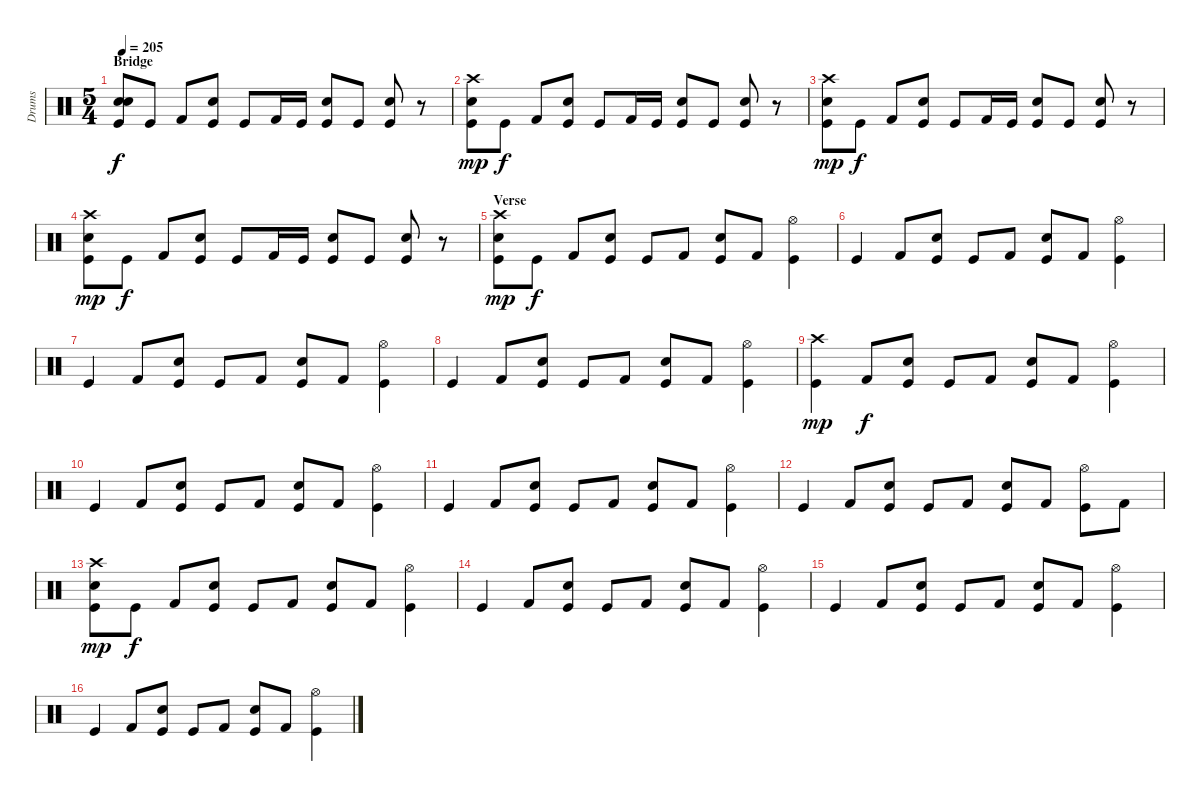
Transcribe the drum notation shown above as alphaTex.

\track ("Drums" "Drums") {instrument percussion}
\staff {score}
\articulation defaults
\ts (5 4)
\section ("" "Bridge")
\tempo 205
\clef neutral
\ks c
("Snare (hit)"{t} "Snare (hit) 2" "Kick (hit)").8{dy f} "Kick (hit)".8 "Kick (hit) 2".8 ("Snare (hit) 2" "Kick (hit)").8 "Kick (hit)".8 "Kick (hit) 2".16 "Kick (hit)".16 ("Snare (hit) 2" "Kick (hit)").8 "Kick (hit)".8 ("Snare (hit) 2" "Kick (hit)").8 r.8 |
("Crash high (hit)" "Snare (hit) 2" "Kick (hit)").8{dy mp} "Kick (hit)".8{dy f} "Kick (hit) 2".8 ("Snare (hit) 2" "Kick (hit)").8 "Kick (hit)".8 "Kick (hit) 2".16 "Kick (hit)".16 ("Snare (hit) 2" "Kick (hit)").8 "Kick (hit)".8 ("Snare (hit) 2" "Kick (hit)").8 r.8 |
("Crash high (hit)" "Snare (hit) 2" "Kick (hit)").8{dy mp} "Kick (hit)".8{dy f} "Kick (hit) 2".8 ("Snare (hit) 2" "Kick (hit)").8 "Kick (hit)".8 "Kick (hit) 2".16 "Kick (hit)".16 ("Snare (hit) 2" "Kick (hit)").8 "Kick (hit)".8 ("Snare (hit) 2" "Kick (hit)").8 r.8 |
("Crash high (hit)" "Snare (hit) 2" "Kick (hit)").8{dy mp} "Kick (hit)".8{dy f} "Kick (hit) 2".8 ("Snare (hit) 2" "Kick (hit)").8 "Kick (hit)".8 "Kick (hit) 2".16 "Kick (hit)".16 ("Snare (hit) 2" "Kick (hit)").8 "Kick (hit)".8 ("Snare (hit) 2" "Kick (hit)").8 r.8 |
\section ("" "Verse")
("Crash high (hit)" "Snare (hit) 2" "Kick (hit)").8{dy mp} "Kick (hit)".8{dy f} "Kick (hit) 2".8 ("Snare (hit) 2" "Kick (hit)").8 "Kick (hit)".8 "Kick (hit) 2".8 ("Snare (hit) 2" "Kick (hit)").8 "Kick (hit) 2".8 ("Hi-Hat (open)" "Kick (hit)").4 |
"Kick (hit)".4 "Kick (hit) 2".8 ("Snare (hit) 2" "Kick (hit)").8 "Kick (hit)".8 "Kick (hit) 2".8 ("Snare (hit) 2" "Kick (hit)").8 "Kick (hit) 2".8 ("Hi-Hat (open)" "Kick (hit)").4 |
"Kick (hit)".4 "Kick (hit) 2".8 ("Snare (hit) 2" "Kick (hit)").8 "Kick (hit)".8 "Kick (hit) 2".8 ("Snare (hit) 2" "Kick (hit)").8 "Kick (hit) 2".8 ("Hi-Hat (open)" "Kick (hit)").4 |
"Kick (hit)".4 "Kick (hit) 2".8 ("Snare (hit) 2" "Kick (hit)").8 "Kick (hit)".8 "Kick (hit) 2".8 ("Snare (hit) 2" "Kick (hit)").8 "Kick (hit) 2".8 ("Hi-Hat (open)" "Kick (hit)").4 |
("Crash high (hit)" "Kick (hit)").4{dy mp} "Kick (hit) 2".8{dy f} ("Snare (hit) 2" "Kick (hit)").8 "Kick (hit)".8 "Kick (hit) 2".8 ("Snare (hit) 2" "Kick (hit)").8 "Kick (hit) 2".8 ("Hi-Hat (open)" "Kick (hit)").4 |
"Kick (hit)".4 "Kick (hit) 2".8 ("Snare (hit) 2" "Kick (hit)").8 "Kick (hit)".8 "Kick (hit) 2".8 ("Snare (hit) 2" "Kick (hit)").8 "Kick (hit) 2".8 ("Hi-Hat (open)" "Kick (hit)").4 |
"Kick (hit)".4 "Kick (hit) 2".8 ("Snare (hit) 2" "Kick (hit)").8 "Kick (hit)".8 "Kick (hit) 2".8 ("Snare (hit) 2" "Kick (hit)").8 "Kick (hit) 2".8 ("Hi-Hat (open)" "Kick (hit)").4 |
"Kick (hit)".4 "Kick (hit) 2".8 ("Snare (hit) 2" "Kick (hit)").8 "Kick (hit)".8 "Kick (hit) 2".8 ("Snare (hit) 2" "Kick (hit)").8 "Kick (hit) 2".8 ("Hi-Hat (open)" "Kick (hit)").8 "Kick (hit) 2".8 |
("Crash high (hit)" "Snare (hit) 2" "Kick (hit)").8{dy mp} "Kick (hit)".8{dy f} "Kick (hit) 2".8 ("Snare (hit) 2" "Kick (hit)").8 "Kick (hit)".8 "Kick (hit) 2".8 ("Snare (hit) 2" "Kick (hit)").8 "Kick (hit) 2".8 ("Hi-Hat (open)" "Kick (hit)").4 |
"Kick (hit)".4 "Kick (hit) 2".8 ("Snare (hit) 2" "Kick (hit)").8 "Kick (hit)".8 "Kick (hit) 2".8 ("Snare (hit) 2" "Kick (hit)").8 "Kick (hit) 2".8 ("Hi-Hat (open)" "Kick (hit)").4 |
"Kick (hit)".4 "Kick (hit) 2".8 ("Snare (hit) 2" "Kick (hit)").8 "Kick (hit)".8 "Kick (hit) 2".8 ("Snare (hit) 2" "Kick (hit)").8 "Kick (hit) 2".8 ("Hi-Hat (open)" "Kick (hit)").4 |
"Kick (hit)".4 "Kick (hit) 2".8 ("Snare (hit) 2" "Kick (hit)").8 "Kick (hit)".8 "Kick (hit) 2".8 ("Snare (hit) 2" "Kick (hit)").8 "Kick (hit) 2".8 ("Hi-Hat (open)" "Kick (hit)").4
